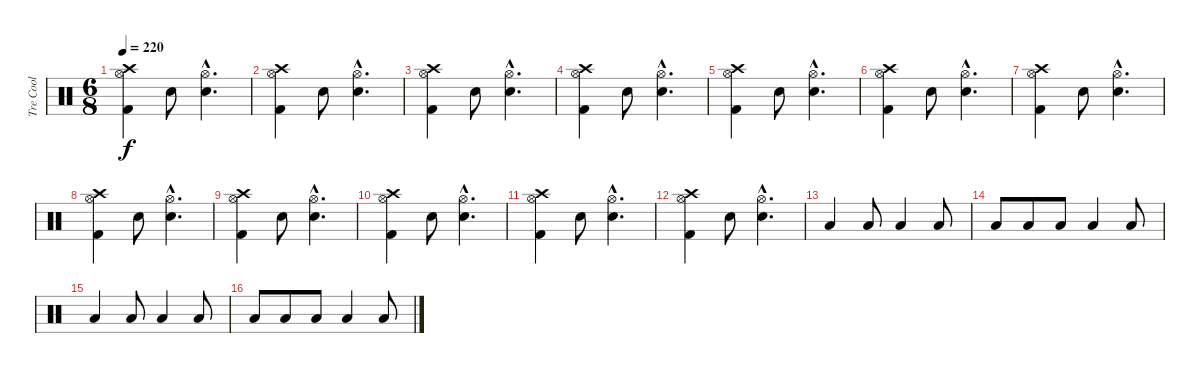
\track ("Tre Cool" "Tre Cool") {instrument percussion}
\staff {score}
\articulation defaults
\ts (6 8)
\tempo 220
\clef neutral
\ks c
("Hi-Hat (open)" "Crash high (hit)" "Kick (hit) 2").4{dy f} "Snare (hit) 2".8 ("Electric Snare (hit)"{hac} "Hi-Hat (open)"{hac}).4{d} |
("Hi-Hat (open)" "Crash high (hit)" "Kick (hit) 2").4 "Snare (hit) 2".8 ("Electric Snare (hit)"{hac} "Hi-Hat (open)"{hac}).4{d} |
("Hi-Hat (open)" "Crash high (hit)" "Kick (hit) 2").4 "Snare (hit) 2".8 ("Electric Snare (hit)"{hac} "Hi-Hat (open)"{hac}).4{d} |
("Hi-Hat (open)" "Crash high (hit)" "Kick (hit) 2").4 "Snare (hit) 2".8 ("Electric Snare (hit)"{hac} "Hi-Hat (open)"{hac}).4{d} |
("Hi-Hat (open)" "Crash high (hit)" "Kick (hit) 2").4 "Snare (hit) 2".8 ("Electric Snare (hit)"{hac} "Hi-Hat (open)"{hac}).4{d} |
("Hi-Hat (open)" "Crash high (hit)" "Kick (hit) 2").4 "Snare (hit) 2".8 ("Electric Snare (hit)"{hac} "Hi-Hat (open)"{hac}).4{d} |
("Hi-Hat (open)" "Crash high (hit)" "Kick (hit) 2").4 "Snare (hit) 2".8 ("Electric Snare (hit)"{hac} "Hi-Hat (open)"{hac}).4{d} |
("Hi-Hat (open)" "Crash high (hit)" "Kick (hit) 2").4 "Snare (hit) 2".8 ("Electric Snare (hit)"{hac} "Hi-Hat (open)"{hac}).4{d} |
("Hi-Hat (open)" "Crash high (hit)" "Kick (hit) 2").4 "Snare (hit) 2".8 ("Electric Snare (hit)"{hac} "Hi-Hat (open)"{hac}).4{d} |
("Hi-Hat (open)" "Crash high (hit)" "Kick (hit) 2").4 "Snare (hit) 2".8 ("Electric Snare (hit)"{hac} "Hi-Hat (open)"{hac}).4{d} |
("Hi-Hat (open)" "Crash high (hit)" "Kick (hit) 2").4 "Snare (hit) 2".8 ("Electric Snare (hit)"{hac} "Hi-Hat (open)"{hac}).4{d} |
("Hi-Hat (open)" "Crash high (hit)" "Kick (hit) 2").4 "Snare (hit) 2".8 ("Electric Snare (hit)"{hac} "Hi-Hat (open)"{hac}).4{d} |
"Low Floor Tom (hit)".4 "Low Floor Tom (hit)".8 "Low Tom (hit)".4 "Low Tom (hit)".8 |
"Low Floor Tom (hit)".8 "Low Floor Tom (hit)".8 "Low Floor Tom (hit)".8 "Low Tom (hit)".4 "Low Tom (hit)".8 |
"Low Floor Tom (hit)".4 "Low Floor Tom (hit)".8 "Low Tom (hit)".4 "Low Tom (hit)".8 |
"Low Floor Tom (hit)".8 "Low Floor Tom (hit)".8 "Low Floor Tom (hit)".8 "Low Tom (hit)".4 "Low Tom (hit)".8
